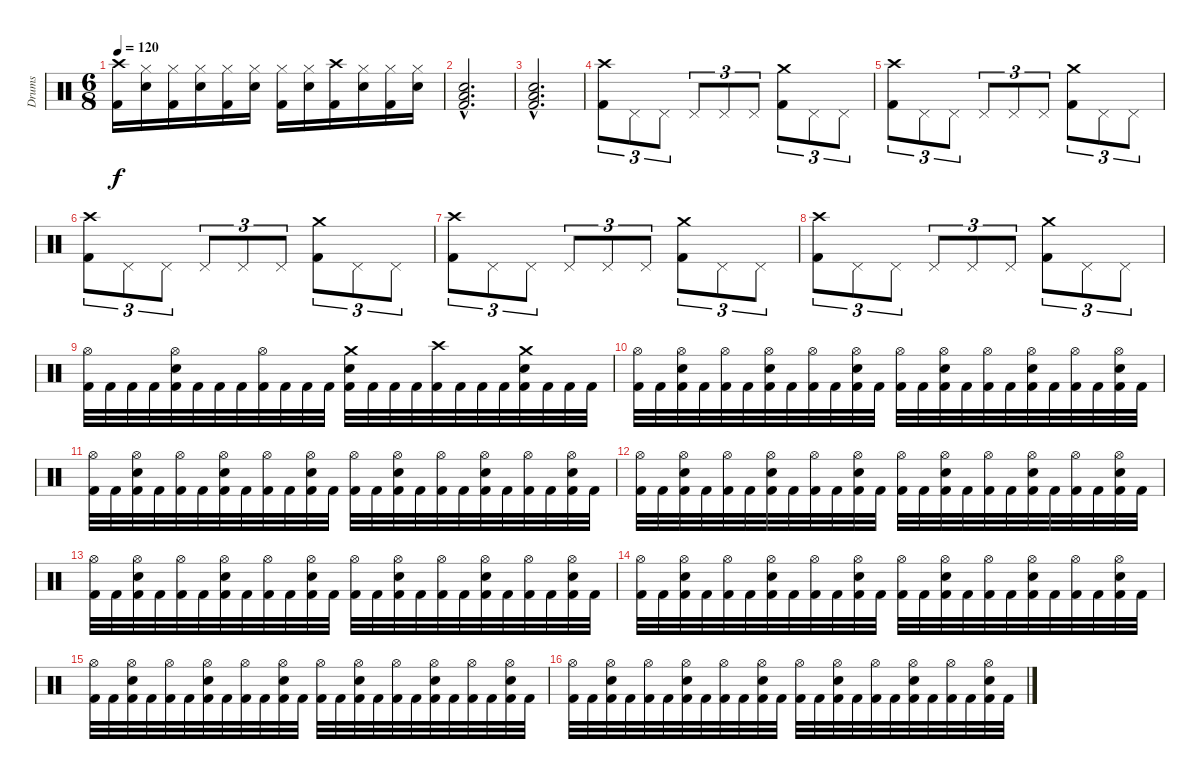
\track ("Drums" "Drums") {instrument percussion}
\staff {score}
\articulation defaults
\ts (6 8)
\tempo 120
\clef neutral
\ks c
("Crash high (hit)" "Kick (hit) 2").16{dy f} ("Hi-Hat (closed)" "Electric Snare (hit)").16 ("Hi-Hat (closed)" "Kick (hit) 2").16 ("Hi-Hat (closed)" "Electric Snare (hit)").16 ("Hi-Hat (closed)" "Kick (hit) 2").16 ("Hi-Hat (closed)" "Electric Snare (hit)").16 ("Hi-Hat (closed)" "Kick (hit) 2").16 ("Hi-Hat (closed)" "Electric Snare (hit)").16 ("Crash high (hit)" "Kick (hit) 2").16 ("Hi-Hat (closed)" "Electric Snare (hit)").16 ("Hi-Hat (closed)" "Kick (hit) 2").16 ("Hi-Hat (closed)" "Electric Snare (hit)").16 |
("Low Floor Tom (hit)"{hac} "Electric Snare (hit)"{hac} "Kick (hit) 2"{hac}).2{d} |
("Low Floor Tom (hit)"{hac} "Electric Snare (hit)"{hac} "Kick (hit) 2"{hac}).2{d} |
("Crash high (hit)" "Kick (hit) 2").8{tu (3 2)} "Pedal Hi-Hat (hit)".8{tu (3 2)} "Pedal Hi-Hat (hit)".8{tu (3 2)} "Pedal Hi-Hat (hit)".8{tu (3 2)} "Pedal Hi-Hat (hit)".8{tu (3 2)} "Pedal Hi-Hat (hit)".8{tu (3 2)} ("Crash medium (hit)" "Kick (hit) 2").8{tu (3 2)} "Pedal Hi-Hat (hit)".8{tu (3 2)} "Pedal Hi-Hat (hit)".8{tu (3 2)} |
("Crash high (hit)" "Kick (hit) 2").8{tu (3 2)} "Pedal Hi-Hat (hit)".8{tu (3 2)} "Pedal Hi-Hat (hit)".8{tu (3 2)} "Pedal Hi-Hat (hit)".8{tu (3 2)} "Pedal Hi-Hat (hit)".8{tu (3 2)} "Pedal Hi-Hat (hit)".8{tu (3 2)} ("Crash medium (hit)" "Kick (hit) 2").8{tu (3 2)} "Pedal Hi-Hat (hit)".8{tu (3 2)} "Pedal Hi-Hat (hit)".8{tu (3 2)} |
("Crash high (hit)" "Kick (hit) 2").8{tu (3 2)} "Pedal Hi-Hat (hit)".8{tu (3 2)} "Pedal Hi-Hat (hit)".8{tu (3 2)} "Pedal Hi-Hat (hit)".8{tu (3 2)} "Pedal Hi-Hat (hit)".8{tu (3 2)} "Pedal Hi-Hat (hit)".8{tu (3 2)} ("Crash medium (hit)" "Kick (hit) 2").8{tu (3 2)} "Pedal Hi-Hat (hit)".8{tu (3 2)} "Pedal Hi-Hat (hit)".8{tu (3 2)} |
("Crash high (hit)" "Kick (hit) 2").8{tu (3 2)} "Pedal Hi-Hat (hit)".8{tu (3 2)} "Pedal Hi-Hat (hit)".8{tu (3 2)} "Pedal Hi-Hat (hit)".8{tu (3 2)} "Pedal Hi-Hat (hit)".8{tu (3 2)} "Pedal Hi-Hat (hit)".8{tu (3 2)} ("Crash medium (hit)" "Kick (hit) 2").8{tu (3 2)} "Pedal Hi-Hat (hit)".8{tu (3 2)} "Pedal Hi-Hat (hit)".8{tu (3 2)} |
("Crash high (hit)" "Kick (hit) 2").8{tu (3 2)} "Pedal Hi-Hat (hit)".8{tu (3 2)} "Pedal Hi-Hat (hit)".8{tu (3 2)} "Pedal Hi-Hat (hit)".8{tu (3 2)} "Pedal Hi-Hat (hit)".8{tu (3 2)} "Pedal Hi-Hat (hit)".8{tu (3 2)} ("Crash medium (hit)" "Kick (hit) 2").8{tu (3 2)} "Pedal Hi-Hat (hit)".8{tu (3 2)} "Pedal Hi-Hat (hit)".8{tu (3 2)} |
("Hi-Hat (open)" "Kick (hit) 2").32 "Kick (hit) 2".32 "Kick (hit) 2".32 "Kick (hit) 2".32 ("Hi-Hat (open)" "Electric Snare (hit)" "Kick (hit) 2").32 "Kick (hit) 2".32 "Kick (hit) 2".32 "Kick (hit) 2".32 ("Hi-Hat (open)" "Kick (hit) 2").32 "Kick (hit) 2".32 "Kick (hit) 2".32 "Kick (hit) 2".32 ("Crash medium (hit)" "Electric Snare (hit)" "Kick (hit) 2").32 "Kick (hit) 2".32 "Kick (hit) 2".32 "Kick (hit) 2".32 ("Crash high (hit)" "Kick (hit) 2").32 "Kick (hit) 2".32 "Kick (hit) 2".32 "Kick (hit) 2".32 ("Crash medium (hit)" "Electric Snare (hit)" "Kick (hit) 2").32 "Kick (hit) 2".32 "Kick (hit) 2".32 "Kick (hit) 2".32 |
("Hi-Hat (open)" "Kick (hit) 2").32 "Kick (hit) 2".32 ("Hi-Hat (open)" "Electric Snare (hit)" "Kick (hit) 2").32 "Kick (hit) 2".32 ("Hi-Hat (open)" "Kick (hit) 2").32 "Kick (hit) 2".32 ("Hi-Hat (open)" "Electric Snare (hit)" "Kick (hit) 2").32 "Kick (hit) 2".32 ("Hi-Hat (open)" "Kick (hit) 2").32 "Kick (hit) 2".32 ("Hi-Hat (open)" "Electric Snare (hit)" "Kick (hit) 2").32 "Kick (hit) 2".32 ("Hi-Hat (open)" "Kick (hit) 2").32 "Kick (hit) 2".32 ("Hi-Hat (open)" "Electric Snare (hit)" "Kick (hit) 2").32 "Kick (hit) 2".32 ("Hi-Hat (open)" "Kick (hit) 2").32 "Kick (hit) 2".32 ("Hi-Hat (open)" "Electric Snare (hit)" "Kick (hit) 2").32 "Kick (hit) 2".32 ("Hi-Hat (open)" "Kick (hit) 2").32 "Kick (hit) 2".32 ("Hi-Hat (open)" "Electric Snare (hit)" "Kick (hit) 2").32 "Kick (hit) 2".32 |
("Hi-Hat (open)" "Kick (hit) 2").32 "Kick (hit) 2".32 ("Hi-Hat (open)" "Electric Snare (hit)" "Kick (hit) 2").32 "Kick (hit) 2".32 ("Hi-Hat (open)" "Kick (hit) 2").32 "Kick (hit) 2".32 ("Hi-Hat (open)" "Electric Snare (hit)" "Kick (hit) 2").32 "Kick (hit) 2".32 ("Hi-Hat (open)" "Kick (hit) 2").32 "Kick (hit) 2".32 ("Hi-Hat (open)" "Electric Snare (hit)" "Kick (hit) 2").32 "Kick (hit) 2".32 ("Hi-Hat (open)" "Kick (hit) 2").32 "Kick (hit) 2".32 ("Hi-Hat (open)" "Electric Snare (hit)" "Kick (hit) 2").32 "Kick (hit) 2".32 ("Hi-Hat (open)" "Kick (hit) 2").32 "Kick (hit) 2".32 ("Hi-Hat (open)" "Electric Snare (hit)" "Kick (hit) 2").32 "Kick (hit) 2".32 ("Hi-Hat (open)" "Kick (hit) 2").32 "Kick (hit) 2".32 ("Hi-Hat (open)" "Electric Snare (hit)" "Kick (hit) 2").32 "Kick (hit) 2".32 |
("Hi-Hat (open)" "Kick (hit) 2").32 "Kick (hit) 2".32 ("Hi-Hat (open)" "Electric Snare (hit)" "Kick (hit) 2").32 "Kick (hit) 2".32 ("Hi-Hat (open)" "Kick (hit) 2").32 "Kick (hit) 2".32 ("Hi-Hat (open)" "Electric Snare (hit)" "Kick (hit) 2").32 "Kick (hit) 2".32 ("Hi-Hat (open)" "Kick (hit) 2").32 "Kick (hit) 2".32 ("Hi-Hat (open)" "Electric Snare (hit)" "Kick (hit) 2").32 "Kick (hit) 2".32 ("Hi-Hat (open)" "Kick (hit) 2").32 "Kick (hit) 2".32 ("Hi-Hat (open)" "Electric Snare (hit)" "Kick (hit) 2").32 "Kick (hit) 2".32 ("Hi-Hat (open)" "Kick (hit) 2").32 "Kick (hit) 2".32 ("Hi-Hat (open)" "Electric Snare (hit)" "Kick (hit) 2").32 "Kick (hit) 2".32 ("Hi-Hat (open)" "Kick (hit) 2").32 "Kick (hit) 2".32 ("Hi-Hat (open)" "Electric Snare (hit)" "Kick (hit) 2").32 "Kick (hit) 2".32 |
("Hi-Hat (open)" "Kick (hit) 2").32 "Kick (hit) 2".32 ("Hi-Hat (open)" "Electric Snare (hit)" "Kick (hit) 2").32 "Kick (hit) 2".32 ("Hi-Hat (open)" "Kick (hit) 2").32 "Kick (hit) 2".32 ("Hi-Hat (open)" "Electric Snare (hit)" "Kick (hit) 2").32 "Kick (hit) 2".32 ("Hi-Hat (open)" "Kick (hit) 2").32 "Kick (hit) 2".32 ("Hi-Hat (open)" "Electric Snare (hit)" "Kick (hit) 2").32 "Kick (hit) 2".32 ("Hi-Hat (open)" "Kick (hit) 2").32 "Kick (hit) 2".32 ("Hi-Hat (open)" "Electric Snare (hit)" "Kick (hit) 2").32 "Kick (hit) 2".32 ("Hi-Hat (open)" "Kick (hit) 2").32 "Kick (hit) 2".32 ("Hi-Hat (open)" "Electric Snare (hit)" "Kick (hit) 2").32 "Kick (hit) 2".32 ("Hi-Hat (open)" "Kick (hit) 2").32 "Kick (hit) 2".32 ("Hi-Hat (open)" "Electric Snare (hit)" "Kick (hit) 2").32 "Kick (hit) 2".32 |
("Hi-Hat (open)" "Kick (hit) 2").32 "Kick (hit) 2".32 ("Hi-Hat (open)" "Electric Snare (hit)" "Kick (hit) 2").32 "Kick (hit) 2".32 ("Hi-Hat (open)" "Kick (hit) 2").32 "Kick (hit) 2".32 ("Hi-Hat (open)" "Electric Snare (hit)" "Kick (hit) 2").32 "Kick (hit) 2".32 ("Hi-Hat (open)" "Kick (hit) 2").32 "Kick (hit) 2".32 ("Hi-Hat (open)" "Electric Snare (hit)" "Kick (hit) 2").32 "Kick (hit) 2".32 ("Hi-Hat (open)" "Kick (hit) 2").32 "Kick (hit) 2".32 ("Hi-Hat (open)" "Electric Snare (hit)" "Kick (hit) 2").32 "Kick (hit) 2".32 ("Hi-Hat (open)" "Kick (hit) 2").32 "Kick (hit) 2".32 ("Hi-Hat (open)" "Electric Snare (hit)" "Kick (hit) 2").32 "Kick (hit) 2".32 ("Hi-Hat (open)" "Kick (hit) 2").32 "Kick (hit) 2".32 ("Hi-Hat (open)" "Electric Snare (hit)" "Kick (hit) 2").32 "Kick (hit) 2".32 |
("Hi-Hat (open)" "Kick (hit) 2").32 "Kick (hit) 2".32 ("Hi-Hat (open)" "Electric Snare (hit)" "Kick (hit) 2").32 "Kick (hit) 2".32 ("Hi-Hat (open)" "Kick (hit) 2").32 "Kick (hit) 2".32 ("Hi-Hat (open)" "Electric Snare (hit)" "Kick (hit) 2").32 "Kick (hit) 2".32 ("Hi-Hat (open)" "Kick (hit) 2").32 "Kick (hit) 2".32 ("Hi-Hat (open)" "Electric Snare (hit)" "Kick (hit) 2").32 "Kick (hit) 2".32 ("Hi-Hat (open)" "Kick (hit) 2").32 "Kick (hit) 2".32 ("Hi-Hat (open)" "Electric Snare (hit)" "Kick (hit) 2").32 "Kick (hit) 2".32 ("Hi-Hat (open)" "Kick (hit) 2").32 "Kick (hit) 2".32 ("Hi-Hat (open)" "Electric Snare (hit)" "Kick (hit) 2").32 "Kick (hit) 2".32 ("Hi-Hat (open)" "Kick (hit) 2").32 "Kick (hit) 2".32 ("Hi-Hat (open)" "Electric Snare (hit)" "Kick (hit) 2").32 "Kick (hit) 2".32 |
("Hi-Hat (open)" "Kick (hit) 2").32 "Kick (hit) 2".32 ("Hi-Hat (open)" "Electric Snare (hit)" "Kick (hit) 2").32 "Kick (hit) 2".32 ("Hi-Hat (open)" "Kick (hit) 2").32 "Kick (hit) 2".32 ("Hi-Hat (open)" "Electric Snare (hit)" "Kick (hit) 2").32 "Kick (hit) 2".32 ("Hi-Hat (open)" "Kick (hit) 2").32 "Kick (hit) 2".32 ("Hi-Hat (open)" "Electric Snare (hit)" "Kick (hit) 2").32 "Kick (hit) 2".32 ("Hi-Hat (open)" "Kick (hit) 2").32 "Kick (hit) 2".32 ("Hi-Hat (open)" "Electric Snare (hit)" "Kick (hit) 2").32 "Kick (hit) 2".32 ("Hi-Hat (open)" "Kick (hit) 2").32 "Kick (hit) 2".32 ("Hi-Hat (open)" "Electric Snare (hit)" "Kick (hit) 2").32 "Kick (hit) 2".32 ("Hi-Hat (open)" "Kick (hit) 2").32 "Kick (hit) 2".32 ("Hi-Hat (open)" "Electric Snare (hit)" "Kick (hit) 2").32 "Kick (hit) 2".32
